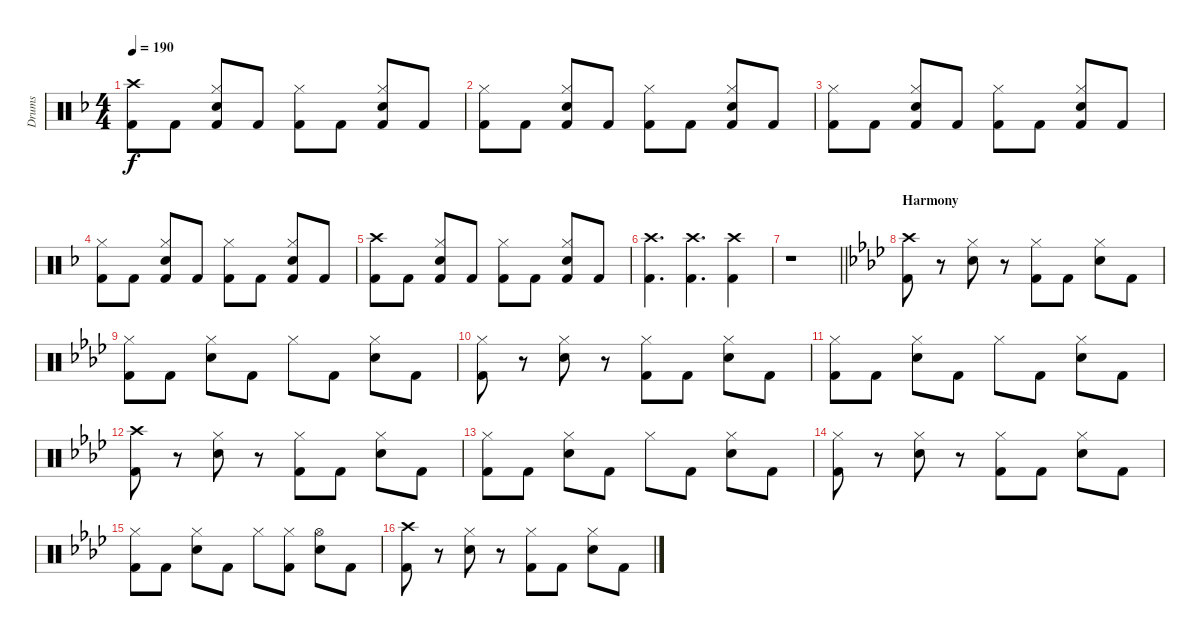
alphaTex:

\track ("Drums" "Drums") {instrument percussion}
\staff {score}
\articulation defaults
\ts (4 4)
\tempo 190
\clef neutral
\ks dminor
("Crash high (hit)" "Kick (hit) 2").8{dy f} "Kick (hit) 2".8 ("Hi-Hat (closed)" "Electric Snare (hit)" "Kick (hit) 2").8 "Kick (hit) 2".8 ("Hi-Hat (closed)" "Kick (hit) 2").8 "Kick (hit) 2".8 ("Hi-Hat (closed)" "Electric Snare (hit)" "Kick (hit) 2").8 "Kick (hit) 2".8 |
("Hi-Hat (closed)" "Kick (hit) 2").8 "Kick (hit) 2".8 ("Hi-Hat (closed)" "Electric Snare (hit)" "Kick (hit) 2").8 "Kick (hit) 2".8 ("Hi-Hat (closed)" "Kick (hit) 2").8 "Kick (hit) 2".8 ("Hi-Hat (closed)" "Electric Snare (hit)" "Kick (hit) 2").8 "Kick (hit) 2".8 |
("Hi-Hat (closed)" "Kick (hit) 2").8 "Kick (hit) 2".8 ("Hi-Hat (closed)" "Electric Snare (hit)" "Kick (hit) 2").8 "Kick (hit) 2".8 ("Hi-Hat (closed)" "Kick (hit) 2").8 "Kick (hit) 2".8 ("Hi-Hat (closed)" "Electric Snare (hit)" "Kick (hit) 2").8 "Kick (hit) 2".8 |
("Hi-Hat (closed)" "Kick (hit) 2").8 "Kick (hit) 2".8 ("Hi-Hat (closed)" "Electric Snare (hit)" "Kick (hit) 2").8 "Kick (hit) 2".8 ("Hi-Hat (closed)" "Kick (hit) 2").8 "Kick (hit) 2".8 ("Hi-Hat (closed)" "Electric Snare (hit)" "Kick (hit) 2").8 "Kick (hit) 2".8 |
("Crash high (hit)" "Kick (hit) 2").8 "Kick (hit) 2".8 ("Hi-Hat (closed)" "Electric Snare (hit)" "Kick (hit) 2").8 "Kick (hit) 2".8 ("Hi-Hat (closed)" "Kick (hit) 2").8 "Kick (hit) 2".8 ("Hi-Hat (closed)" "Electric Snare (hit)" "Kick (hit) 2").8 "Kick (hit) 2".8 |
("Crash high (hit)" "Kick (hit) 2").4{d} ("Crash high (hit)" "Kick (hit) 2").4{d} ("Crash high (hit)" "Kick (hit) 2").4 |
\barLineRight lightlight
r.1 |
\section ("" "Harmony")
\ks fminor
("Crash high (hit)" "Kick (hit) 2").8 r.8 ("Hi-Hat (closed)" "Electric Snare (hit)").8 r.8 ("Hi-Hat (closed)" "Kick (hit) 2").8 "Kick (hit) 2".8 ("Hi-Hat (closed)" "Electric Snare (hit)").8 "Kick (hit) 2".8 |
("Hi-Hat (closed)" "Kick (hit) 2").8 "Kick (hit) 2".8 ("Hi-Hat (closed)" "Electric Snare (hit)").8 "Kick (hit) 2".8 "Hi-Hat (closed)".8 "Kick (hit) 2".8 ("Hi-Hat (closed)" "Electric Snare (hit)").8 "Kick (hit) 2".8 |
("Hi-Hat (closed)" "Kick (hit) 2").8 r.8 ("Hi-Hat (closed)" "Electric Snare (hit)").8 r.8 ("Hi-Hat (closed)" "Kick (hit) 2").8 "Kick (hit) 2".8 ("Hi-Hat (closed)" "Electric Snare (hit)").8 "Kick (hit) 2".8 |
("Hi-Hat (closed)" "Kick (hit) 2").8 "Kick (hit) 2".8 ("Hi-Hat (closed)" "Electric Snare (hit)").8 "Kick (hit) 2".8 "Hi-Hat (closed)".8 "Kick (hit) 2".8 ("Hi-Hat (closed)" "Electric Snare (hit)").8 "Kick (hit) 2".8 |
("Crash high (hit)" "Kick (hit) 2").8 r.8 ("Hi-Hat (closed)" "Electric Snare (hit)").8 r.8 ("Hi-Hat (closed)" "Kick (hit) 2").8 "Kick (hit) 2".8 ("Hi-Hat (closed)" "Electric Snare (hit)").8 "Kick (hit) 2".8 |
("Hi-Hat (closed)" "Kick (hit) 2").8 "Kick (hit) 2".8 ("Hi-Hat (closed)" "Electric Snare (hit)").8 "Kick (hit) 2".8 "Hi-Hat (closed)".8 "Kick (hit) 2".8 ("Hi-Hat (closed)" "Electric Snare (hit)").8 "Kick (hit) 2".8 |
("Hi-Hat (closed)" "Kick (hit) 2").8 r.8 ("Hi-Hat (closed)" "Electric Snare (hit)").8 r.8 ("Hi-Hat (closed)" "Kick (hit) 2").8 "Kick (hit) 2".8 ("Hi-Hat (closed)" "Electric Snare (hit)").8 "Kick (hit) 2".8 |
("Hi-Hat (closed)" "Kick (hit) 2").8 "Kick (hit) 2".8 ("Hi-Hat (closed)" "Electric Snare (hit)").8 "Kick (hit) 2".8 "Hi-Hat (closed)".8 ("Hi-Hat (closed)" "Kick (hit) 2").8 ("Hi-Hat (open)" "Electric Snare (hit)").8 "Kick (hit) 2".8 |
("Crash high (hit)" "Kick (hit) 2").8 r.8 ("Hi-Hat (closed)" "Electric Snare (hit)").8 r.8 ("Hi-Hat (closed)" "Kick (hit) 2").8 "Kick (hit) 2".8 ("Hi-Hat (closed)" "Electric Snare (hit)").8 "Kick (hit) 2".8
